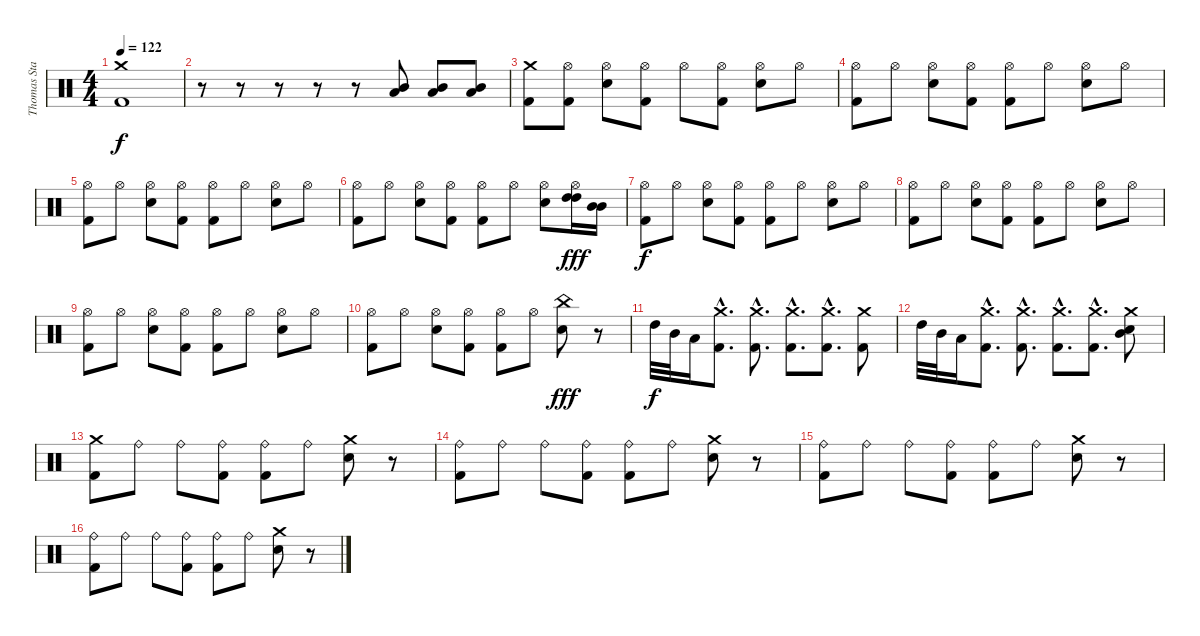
\track ("Thomas Stauch" "Thomas Sta") {instrument percussion}
\staff {score}
\articulation defaults
\ts (4 4)
\tempo 122
\clef neutral
\ks c
("Crash medium (hit)" "Kick (hit) 2").1{dy f} |
r.8 r.8 r.8 r.8 r.8 ("Mid Tom (hit)" "Low Tom (hit)").8 ("Mid Tom (hit)" "Low Tom (hit)").8 ("Mid Tom (hit)" "Low Tom (hit)").8 |
("Crash medium (hit)" "Kick (hit) 2").8 ("Hi-Hat (open)" "Kick (hit) 2").8 ("Hi-Hat (open)" "Electric Snare (hit)").8 ("Hi-Hat (open)" "Kick (hit) 2").8 "Hi-Hat (open)".8 ("Hi-Hat (open)" "Kick (hit) 2").8 ("Hi-Hat (open)" "Electric Snare (hit)").8 "Hi-Hat (open)".8 |
("Hi-Hat (open)" "Kick (hit) 2").8 "Hi-Hat (open)".8 ("Hi-Hat (open)" "Electric Snare (hit)").8 ("Hi-Hat (open)" "Kick (hit) 2").8 ("Hi-Hat (open)" "Kick (hit) 2").8 "Hi-Hat (open)".8 ("Hi-Hat (open)" "Electric Snare (hit)").8 "Hi-Hat (open)".8 |
("Hi-Hat (open)" "Kick (hit) 2").8 "Hi-Hat (open)".8 ("Hi-Hat (open)" "Electric Snare (hit)").8 ("Hi-Hat (open)" "Kick (hit) 2").8 ("Hi-Hat (open)" "Kick (hit) 2").8 "Hi-Hat (open)".8 ("Hi-Hat (open)" "Electric Snare (hit)").8 "Hi-Hat (open)".8 |
("Hi-Hat (open)" "Kick (hit) 2").8 "Hi-Hat (open)".8 ("Hi-Hat (open)" "Electric Snare (hit)").8 ("Hi-Hat (open)" "Kick (hit) 2").8 ("Hi-Hat (open)" "Kick (hit) 2").8 "Hi-Hat (open)".8 ("Hi-Hat (open)" "Electric Snare (hit)").8 ("Hi-Hat (open)" "High Tom (hit)" "High Tom (hit)").16{dy fff} ("Mid Tom (hit)" "Mid Tom (hit)").16 |
("Hi-Hat (open)" "Kick (hit) 2").8{dy f} "Hi-Hat (open)".8 ("Hi-Hat (open)" "Electric Snare (hit)").8 ("Hi-Hat (open)" "Kick (hit) 2").8 ("Hi-Hat (open)" "Kick (hit) 2").8 "Hi-Hat (open)".8 ("Hi-Hat (open)" "Electric Snare (hit)").8 "Hi-Hat (open)".8 |
("Hi-Hat (open)" "Kick (hit) 2").8 "Hi-Hat (open)".8 ("Hi-Hat (open)" "Electric Snare (hit)").8 ("Hi-Hat (open)" "Kick (hit) 2").8 ("Hi-Hat (open)" "Kick (hit) 2").8 "Hi-Hat (open)".8 ("Hi-Hat (open)" "Electric Snare (hit)").8 "Hi-Hat (open)".8 |
("Hi-Hat (open)" "Kick (hit) 2").8 "Hi-Hat (open)".8 ("Hi-Hat (open)" "Electric Snare (hit)").8 ("Hi-Hat (open)" "Kick (hit) 2").8 ("Hi-Hat (open)" "Kick (hit) 2").8 "Hi-Hat (open)".8 ("Hi-Hat (open)" "Electric Snare (hit)").8 "Hi-Hat (open)".8 |
("Hi-Hat (open)" "Kick (hit) 2").8 "Hi-Hat (open)".8 ("Hi-Hat (open)" "Electric Snare (hit)").8 ("Hi-Hat (open)" "Kick (hit) 2").8 ("Hi-Hat (open)" "Kick (hit) 2").8 "Hi-Hat (open)".8 ("China (hit)" "Electric Snare (hit)").8{dy fff} r.8 |
"High Tom (hit)".32{dy f} "Mid Tom (hit)".32 "Low Tom (hit)".16 ("Crash medium (hit)"{hac} "Kick (hit) 2"{hac}).8{d} ("Crash medium (hit)"{hac} "Kick (hit) 2"{hac}).8{d} ("Crash medium (hit)"{hac} "Kick (hit) 2"{hac}).8{d} ("Crash medium (hit)"{hac} "Kick (hit) 2"{hac}).8{d} ("Crash medium (hit)" "Kick (hit) 2").8 |
"High Tom (hit)".32 "Mid Tom (hit)".32 "Low Tom (hit)".16 ("Crash medium (hit)"{hac} "Kick (hit) 2"{hac}).8{d} ("Crash medium (hit)"{hac} "Kick (hit) 2"{hac}).8{d} ("Crash medium (hit)"{hac} "Kick (hit) 2"{hac}).8{d} ("Crash medium (hit)"{hac} "Kick (hit) 2"{hac}).8{d} ("Crash medium (hit)" "Mid Tom (hit)" "Electric Snare (hit)").8 |
("Crash medium (hit)" "Kick (hit) 2").8 "Ride (bell)".8 "Ride (bell)".8 ("Ride (bell)" "Kick (hit) 2").8 ("Ride (bell)" "Kick (hit) 2").8 "Ride (bell)".8 ("Crash medium (hit)" "Electric Snare (hit)").8 r.8 |
("Ride (bell)" "Kick (hit) 2").8 "Ride (bell)".8 "Ride (bell)".8 ("Ride (bell)" "Kick (hit) 2").8 ("Ride (bell)" "Kick (hit) 2").8 "Ride (bell)".8 ("Crash medium (hit)" "Electric Snare (hit)").8 r.8 |
("Ride (bell)" "Kick (hit) 2").8 "Ride (bell)".8 "Ride (bell)".8 ("Ride (bell)" "Kick (hit) 2").8 ("Ride (bell)" "Kick (hit) 2").8 "Ride (bell)".8 ("Crash medium (hit)" "Electric Snare (hit)").8 r.8 |
("Ride (bell)" "Kick (hit) 2").8 "Ride (bell)".8 "Ride (bell)".8 ("Ride (bell)" "Kick (hit) 2").8 ("Ride (bell)" "Kick (hit) 2").8 "Ride (bell)".8 ("Crash medium (hit)" "Electric Snare (hit)").8 r.8
